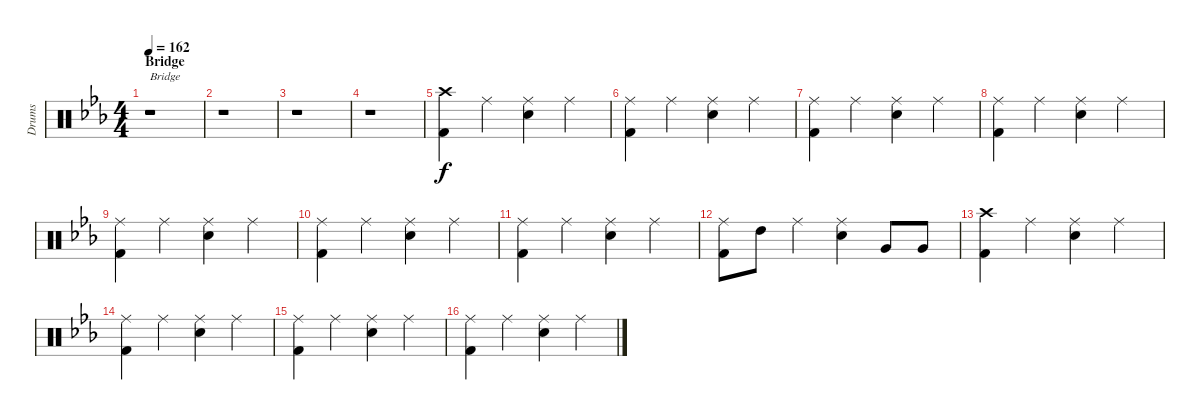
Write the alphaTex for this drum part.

\track ("Drums" "Drums") {instrument percussion}
\staff {score}
\articulation defaults
\ts (4 4)
\section ("" "Bridge")
\tempo 162
\clef neutral
\ks eb
r.1{txt "Bridge" dy f} |
r.1 |
r.1 |
r.1 |
("Crash high (hit)" "Kick (hit) 2").4 "Ride (middle)".4 ("Ride (middle)" "Electric Snare (hit)").4 "Ride (middle)".4 |
("Ride (middle)" "Kick (hit) 2").4 "Ride (middle)".4 ("Ride (middle)" "Electric Snare (hit)").4 "Ride (middle)".4 |
("Ride (middle)" "Kick (hit) 2").4 "Ride (middle)".4 ("Ride (middle)" "Electric Snare (hit)").4 "Ride (middle)".4 |
("Ride (middle)" "Kick (hit) 2").4 "Ride (middle)".4 ("Ride (middle)" "Electric Snare (hit)").4 "Ride (middle)".4 |
("Ride (middle)" "Kick (hit) 2").4 "Ride (middle)".4 ("Ride (middle)" "Electric Snare (hit)").4 "Ride (middle)".4 |
("Ride (middle)" "Kick (hit) 2").4 "Ride (middle)".4 ("Ride (middle)" "Electric Snare (hit)").4 "Ride (middle)".4 |
("Ride (middle)" "Kick (hit) 2").4 "Ride (middle)".4 ("Ride (middle)" "Electric Snare (hit)").4 "Ride (middle)".4 |
("Ride (middle)" "Kick (hit) 2").8 "High Tom (hit)".8 "Ride (middle)".4 ("Ride (middle)" "Electric Snare (hit)").4 "Very Low Tom (hit)".8 "Very Low Tom (hit)".8 |
("Crash high (hit)" "Kick (hit) 2").4 "Ride (middle)".4 ("Ride (middle)" "Electric Snare (hit)").4 "Ride (middle)".4 |
("Ride (middle)" "Kick (hit) 2").4 "Ride (middle)".4 ("Ride (middle)" "Electric Snare (hit)").4 "Ride (middle)".4 |
("Ride (middle)" "Kick (hit) 2").4 "Ride (middle)".4 ("Ride (middle)" "Electric Snare (hit)").4 "Ride (middle)".4 |
("Ride (middle)" "Kick (hit) 2").4 "Ride (middle)".4 ("Ride (middle)" "Electric Snare (hit)").4 "Ride (middle)".4
